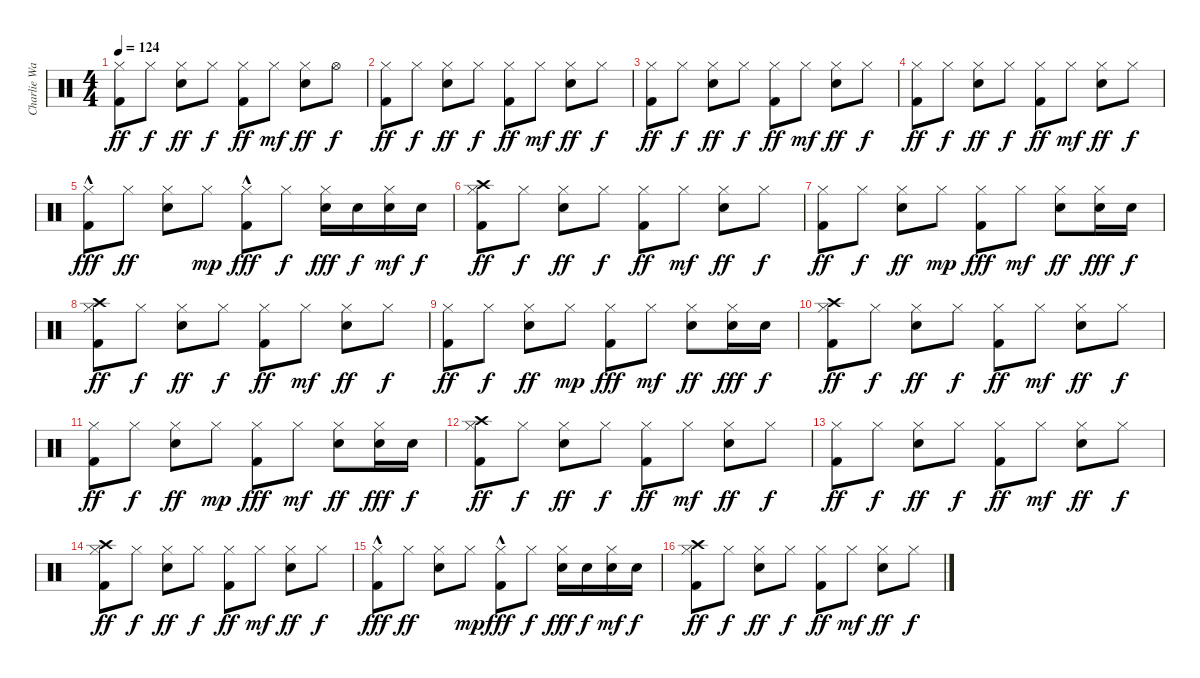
\track ("Charlie Watts" "Charlie Wa") {instrument percussion}
\staff {score}
\articulation defaults
\ts (4 4)
\tempo 124
\clef neutral
\ks c
("Kick (hit) 2" "Hi-Hat (closed)").8{dy ff} "Hi-Hat (closed)".8{dy f} ("Snare (hit) 2" "Hi-Hat (closed)").8{dy ff} "Hi-Hat (closed)".8{dy f} ("Kick (hit) 2" "Hi-Hat (closed)").8{dy ff} "Hi-Hat (closed)".8{dy mf} ("Snare (hit) 2" "Hi-Hat (closed)").8{dy ff} "Hi-Hat (open)".8{dy f} |
("Kick (hit) 2" "Hi-Hat (closed)").8{dy ff} "Hi-Hat (closed)".8{dy f} ("Snare (hit) 2" "Hi-Hat (closed)").8{dy ff} "Hi-Hat (closed)".8{dy f} ("Kick (hit) 2" "Hi-Hat (closed)").8{dy ff} "Hi-Hat (closed)".8{dy mf} ("Snare (hit) 2" "Hi-Hat (closed)").8{dy ff} "Hi-Hat (closed)".8{dy f} |
("Kick (hit) 2" "Hi-Hat (closed)").8{dy ff} "Hi-Hat (closed)".8{dy f} ("Snare (hit) 2" "Hi-Hat (closed)").8{dy ff} "Hi-Hat (closed)".8{dy f} ("Kick (hit) 2" "Hi-Hat (closed)").8{dy ff} "Hi-Hat (closed)".8{dy mf} ("Snare (hit) 2" "Hi-Hat (closed)").8{dy ff} "Hi-Hat (closed)".8{dy f} |
("Kick (hit) 2" "Hi-Hat (closed)").8{dy ff} "Hi-Hat (closed)".8{dy f} ("Snare (hit) 2" "Hi-Hat (closed)").8{dy ff} "Hi-Hat (closed)".8{dy f} ("Kick (hit) 2" "Hi-Hat (closed)").8{dy ff} "Hi-Hat (closed)".8{dy mf} ("Snare (hit) 2" "Hi-Hat (closed)").8{dy ff} "Hi-Hat (closed)".8{dy f} |
("Kick (hit) 2"{hac} "Hi-Hat (closed)").8{dy fff} "Hi-Hat (closed)".8{dy ff} ("Snare (hit) 2" "Hi-Hat (closed)").8 "Hi-Hat (closed)".8{dy mp} ("Kick (hit) 2"{hac} "Hi-Hat (closed)").8{dy fff} "Hi-Hat (closed)".8{dy f} ("Hi-Hat (closed)" "Snare (hit) 2").16{dy fff} "Snare (hit) 2".16{dy f} ("Hi-Hat (closed)" "Snare (hit) 2").16{dy mf} "Snare (hit) 2".16{dy f} |
("Kick (hit) 2" "Hi-Hat (closed)" "Crash high (hit)").8{dy ff} "Hi-Hat (closed)".8{dy f} ("Snare (hit) 2" "Hi-Hat (closed)").8{dy ff} "Hi-Hat (closed)".8{dy f} ("Kick (hit) 2" "Hi-Hat (closed)").8{dy ff} "Hi-Hat (closed)".8{dy mf} ("Snare (hit) 2" "Hi-Hat (closed)").8{dy ff} "Hi-Hat (closed)".8{dy f} |
("Kick (hit) 2" "Hi-Hat (closed)").8{dy ff} "Hi-Hat (closed)".8{dy f} ("Snare (hit) 2" "Hi-Hat (closed)").8{dy ff} "Hi-Hat (closed)".8{dy mp} ("Kick (hit) 2" "Hi-Hat (closed)").8{dy fff} "Hi-Hat (closed)".8{dy mf} ("Hi-Hat (closed)" "Snare (hit) 2").8{dy ff} ("Hi-Hat (closed)" "Snare (hit) 2").16{dy fff} "Snare (hit) 2".16{dy f} |
("Kick (hit) 2" "Hi-Hat (closed)" "Crash high (hit)").8{dy ff} "Hi-Hat (closed)".8{dy f} ("Snare (hit) 2" "Hi-Hat (closed)").8{dy ff} "Hi-Hat (closed)".8{dy f} ("Kick (hit) 2" "Hi-Hat (closed)").8{dy ff} "Hi-Hat (closed)".8{dy mf} ("Snare (hit) 2" "Hi-Hat (closed)").8{dy ff} "Hi-Hat (closed)".8{dy f} |
("Kick (hit) 2" "Hi-Hat (closed)").8{dy ff} "Hi-Hat (closed)".8{dy f} ("Snare (hit) 2" "Hi-Hat (closed)").8{dy ff} "Hi-Hat (closed)".8{dy mp} ("Kick (hit) 2" "Hi-Hat (closed)").8{dy fff} "Hi-Hat (closed)".8{dy mf} ("Hi-Hat (closed)" "Snare (hit) 2").8{dy ff} ("Hi-Hat (closed)" "Snare (hit) 2").16{dy fff} "Snare (hit) 2".16{dy f} |
("Kick (hit) 2" "Hi-Hat (closed)" "Crash high (hit)").8{dy ff} "Hi-Hat (closed)".8{dy f} ("Snare (hit) 2" "Hi-Hat (closed)").8{dy ff} "Hi-Hat (closed)".8{dy f} ("Kick (hit) 2" "Hi-Hat (closed)").8{dy ff} "Hi-Hat (closed)".8{dy mf} ("Snare (hit) 2" "Hi-Hat (closed)").8{dy ff} "Hi-Hat (closed)".8{dy f} |
("Kick (hit) 2" "Hi-Hat (closed)").8{dy ff} "Hi-Hat (closed)".8{dy f} ("Snare (hit) 2" "Hi-Hat (closed)").8{dy ff} "Hi-Hat (closed)".8{dy mp} ("Kick (hit) 2" "Hi-Hat (closed)").8{dy fff} "Hi-Hat (closed)".8{dy mf} ("Hi-Hat (closed)" "Snare (hit) 2").8{dy ff} ("Hi-Hat (closed)" "Snare (hit) 2").16{dy fff} "Snare (hit) 2".16{dy f} |
("Kick (hit) 2" "Hi-Hat (closed)" "Crash high (hit)").8{dy ff} "Hi-Hat (closed)".8{dy f} ("Snare (hit) 2" "Hi-Hat (closed)").8{dy ff} "Hi-Hat (closed)".8{dy f} ("Kick (hit) 2" "Hi-Hat (closed)").8{dy ff} "Hi-Hat (closed)".8{dy mf} ("Snare (hit) 2" "Hi-Hat (closed)").8{dy ff} "Hi-Hat (closed)".8{dy f} |
("Kick (hit) 2" "Hi-Hat (closed)").8{dy ff} "Hi-Hat (closed)".8{dy f} ("Snare (hit) 2" "Hi-Hat (closed)").8{dy ff} "Hi-Hat (closed)".8{dy f} ("Kick (hit) 2" "Hi-Hat (closed)").8{dy ff} "Hi-Hat (closed)".8{dy mf} ("Snare (hit) 2" "Hi-Hat (closed)").8{dy ff} "Hi-Hat (closed)".8{dy f} |
("Kick (hit) 2" "Hi-Hat (closed)" "Crash high (hit)").8{dy ff} "Hi-Hat (closed)".8{dy f} ("Snare (hit) 2" "Hi-Hat (closed)").8{dy ff} "Hi-Hat (closed)".8{dy f} ("Kick (hit) 2" "Hi-Hat (closed)").8{dy ff} "Hi-Hat (closed)".8{dy mf} ("Snare (hit) 2" "Hi-Hat (closed)").8{dy ff} "Hi-Hat (closed)".8{dy f} |
("Kick (hit) 2"{hac} "Hi-Hat (closed)").8{dy fff} "Hi-Hat (closed)".8{dy ff} ("Snare (hit) 2" "Hi-Hat (closed)").8 "Hi-Hat (closed)".8{dy mp} ("Kick (hit) 2"{hac} "Hi-Hat (closed)").8{dy fff} "Hi-Hat (closed)".8{dy f} ("Hi-Hat (closed)" "Snare (hit) 2").16{dy fff} "Snare (hit) 2".16{dy f} ("Hi-Hat (closed)" "Snare (hit) 2").16{dy mf} "Snare (hit) 2".16{dy f} |
("Kick (hit) 2" "Hi-Hat (closed)" "Crash high (hit)").8{dy ff} "Hi-Hat (closed)".8{dy f} ("Snare (hit) 2" "Hi-Hat (closed)").8{dy ff} "Hi-Hat (closed)".8{dy f} ("Kick (hit) 2" "Hi-Hat (closed)").8{dy ff} "Hi-Hat (closed)".8{dy mf} ("Snare (hit) 2" "Hi-Hat (closed)").8{dy ff} "Hi-Hat (closed)".8{dy f}
